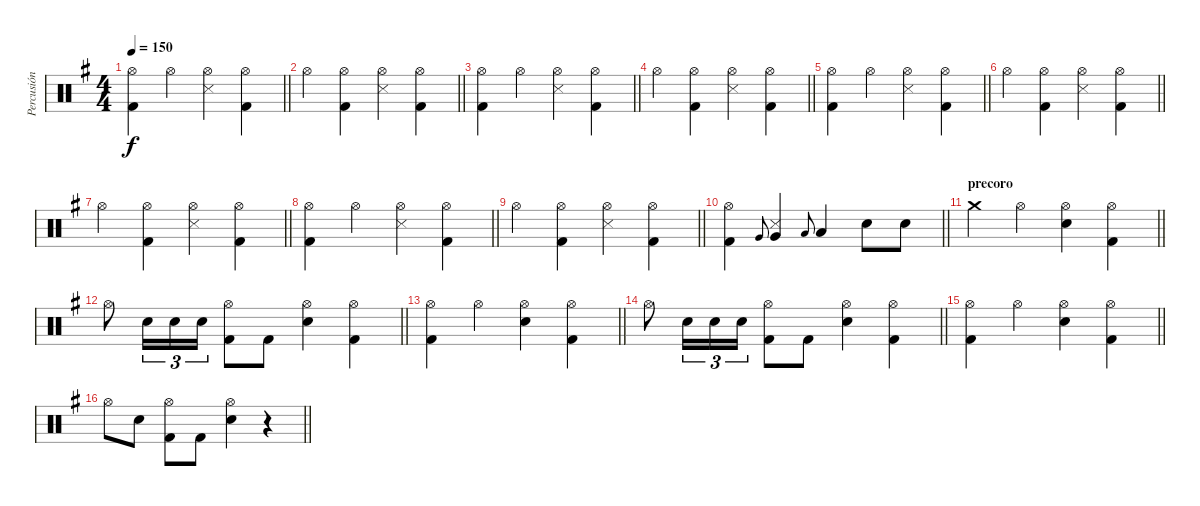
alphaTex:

\track ("Percusión" "Percusión") {instrument percussion}
\staff {score}
\articulation defaults
\ts (4 4)
\tempo 150
\clef neutral
\barLineRight lightlight
\ks eminor
("Hi-Hat (open)" "Kick (hit) 2").4{dy f} "Hi-Hat (open)".4 ("Hi-Hat (open)" "Snare (side stick) 3").4 ("Hi-Hat (open)" "Kick (hit) 2").4 |
\barLineRight lightlight "Hi-Hat (open)".4
("Hi-Hat (open)" "Kick (hit) 2").4 ("Hi-Hat (open)" "Snare (side stick) 3").4 ("Hi-Hat (open)" "Kick (hit) 2").4 |
\barLineRight lightlight
("Hi-Hat (open)" "Kick (hit) 2").4 "Hi-Hat (open)".4 ("Hi-Hat (open)" "Snare (side stick) 3").4 ("Hi-Hat (open)" "Kick (hit) 2").4 |
\barLineRight lightlight "Hi-Hat (open)".4
("Hi-Hat (open)" "Kick (hit) 2").4 ("Hi-Hat (open)" "Snare (side stick) 3").4 ("Hi-Hat (open)" "Kick (hit) 2").4 |
\barLineRight lightlight
("Hi-Hat (open)" "Kick (hit) 2").4 "Hi-Hat (open)".4 ("Hi-Hat (open)" "Snare (side stick) 3").4 ("Hi-Hat (open)" "Kick (hit) 2").4 |
\barLineRight lightlight "Hi-Hat (open)".4
("Hi-Hat (open)" "Kick (hit) 2").4 ("Hi-Hat (open)" "Snare (side stick) 3").4 ("Hi-Hat (open)" "Kick (hit) 2").4 |
\barLineRight lightlight "Hi-Hat (open)".4
("Hi-Hat (open)" "Kick (hit) 2").4 ("Hi-Hat (open)" "Snare (side stick) 3").4 ("Hi-Hat (open)" "Kick (hit) 2").4 |
\barLineRight lightlight
("Hi-Hat (open)" "Kick (hit) 2").4 "Hi-Hat (open)".4 ("Hi-Hat (open)" "Snare (side stick) 3").4 ("Hi-Hat (open)" "Kick (hit) 2").4 |
\barLineRight lightlight "Hi-Hat (open)".4
("Hi-Hat (open)" "Kick (hit) 2").4 ("Hi-Hat (open)" "Snare (side stick) 3").4 ("Hi-Hat (open)" "Kick (hit) 2").4 |
\barLineRight lightlight
("Hi-Hat (open)" "Kick (hit) 2").4 "Very Low Tom (hit)".8{gr onbeat} ("Very Low Tom (hit)" "Snare (side stick) 3").4 "Low Floor Tom (hit)".8{gr onbeat} "Low Floor Tom (hit)".4 "Electric Snare (hit)".8 "Electric Snare (hit)".8 |
\section ("" "precoro")
\barLineRight lightlight "Crash medium (hit)".4 "Hi-Hat (open)".4
("Hi-Hat (open)" "Electric Snare (hit)").4 ("Hi-Hat (open)" "Kick (hit) 2").4 |
\barLineRight lightlight "Hi-Hat (open)".8 "Electric Snare (hit)".16{tu (3 2)} "Electric Snare (hit)".16{tu (3 2)} "Electric Snare (hit)".16{tu (3 2)}
("Hi-Hat (open)" "Kick (hit) 2").8 "Kick (hit) 2".8 ("Hi-Hat (open)" "Electric Snare (hit)").4 ("Hi-Hat (open)" "Kick (hit) 2").4 |
\barLineRight lightlight
("Hi-Hat (open)" "Kick (hit) 2").4 "Hi-Hat (open)".4 ("Hi-Hat (open)" "Electric Snare (hit)").4 ("Hi-Hat (open)" "Kick (hit) 2").4 |
\barLineRight lightlight "Hi-Hat (open)".8 "Electric Snare (hit)".16{tu (3 2)} "Electric Snare (hit)".16{tu (3 2)} "Electric Snare (hit)".16{tu (3 2)}
("Hi-Hat (open)" "Kick (hit) 2").8 "Kick (hit) 2".8 ("Hi-Hat (open)" "Electric Snare (hit)").4 ("Hi-Hat (open)" "Kick (hit) 2").4 |
\barLineRight lightlight
("Hi-Hat (open)" "Kick (hit) 2").4 "Hi-Hat (open)".4 ("Hi-Hat (open)" "Electric Snare (hit)").4 ("Hi-Hat (open)" "Kick (hit) 2").4 |
\barLineRight lightlight "Hi-Hat (open)".8 "Electric Snare (hit)".8
("Hi-Hat (open)" "Kick (hit) 2").8 "Kick (hit) 2".8 ("Hi-Hat (open)" "Electric Snare (hit)").4 r.4
